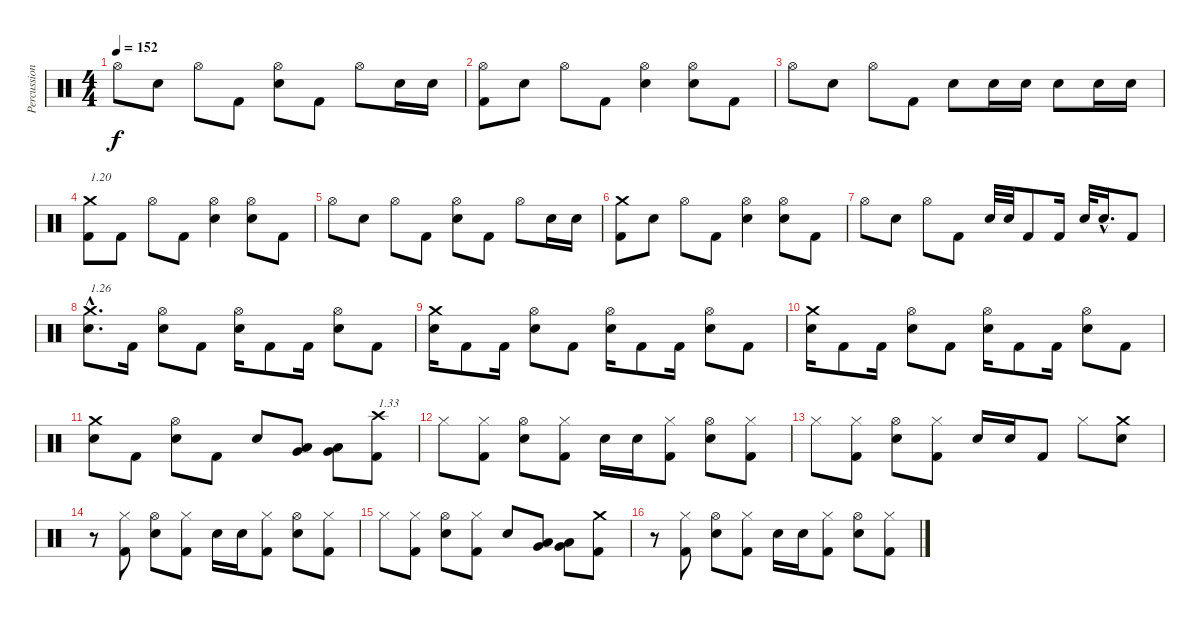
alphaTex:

\track ("Percussions" "Percussion") {instrument percussion}
\staff {score}
\articulation defaults
\ts (4 4)
\tempo 152
\clef neutral
\ks c "Hi-Hat (open)".8{dy f} "Electric Snare (hit)".8 "Hi-Hat (open)".8 "Kick (hit) 2".8
("Electric Snare (hit)" "Hi-Hat (open)").8 "Kick (hit) 2".8 "Hi-Hat (open)".8 "Electric Snare (hit)".16 "Electric Snare (hit)".16 |
("Kick (hit) 2" "Hi-Hat (open)").8 "Electric Snare (hit)".8 "Hi-Hat (open)".8 "Kick (hit) 2".8 ("Electric Snare (hit)" "Hi-Hat (open)").4 ("Electric Snare (hit)" "Hi-Hat (open)").8 "Kick (hit) 2".8 |
"Hi-Hat (open)".8 "Electric Snare (hit)".8 "Hi-Hat (open)".8 "Kick (hit) 2".8 "Electric Snare (hit)".8 "Electric Snare (hit)".16 "Electric Snare (hit)".16 "Electric Snare (hit)".8 "Electric Snare (hit)".16 "Electric Snare (hit)".16 |
("Kick (hit) 2" "Crash medium (hit)").8{txt "1.20"} "Kick (hit) 2".8 "Hi-Hat (open)".8 "Kick (hit) 2".8 ("Electric Snare (hit)" "Hi-Hat (open)").4 ("Electric Snare (hit)" "Hi-Hat (open)").8 "Kick (hit) 2".8 |
"Hi-Hat (open)".8 "Electric Snare (hit)".8 "Hi-Hat (open)".8 "Kick (hit) 2".8 ("Electric Snare (hit)" "Hi-Hat (open)").8 "Kick (hit) 2".8 "Hi-Hat (open)".8 "Electric Snare (hit)".16 "Electric Snare (hit)".16 |
("Kick (hit) 2" "Crash medium (hit)").8 "Electric Snare (hit)".8 "Hi-Hat (open)".8 "Kick (hit) 2".8 ("Electric Snare (hit)" "Hi-Hat (open)").4 ("Electric Snare (hit)" "Hi-Hat (open)").8 "Kick (hit) 2".8 |
"Hi-Hat (open)".8 "Electric Snare (hit)".8 "Hi-Hat (open)".8 "Kick (hit) 2".8 "Electric Snare (hit)".32 "Electric Snare (hit)".32 "Kick (hit) 2".8 "Kick (hit) 2".16 "Electric Snare (hit)".32 "Electric Snare (hit)"{hac}.16{d} "Kick (hit) 2".8 |
("Electric Snare (hit)"{hac} "Crash medium (hit)"{hac}).8{d txt "1.26"} "Kick (hit) 2".16 ("Electric Snare (hit)" "Hi-Hat (open)").8 "Kick (hit) 2".8 ("Electric Snare (hit)" "Hi-Hat (open)").16 "Kick (hit) 2".8 "Kick (hit) 2".16 ("Electric Snare (hit)" "Hi-Hat (open)").8 "Kick (hit) 2".8 |
("Electric Snare (hit)" "Crash medium (hit)").16 "Kick (hit) 2".8 "Kick (hit) 2".16 ("Electric Snare (hit)" "Hi-Hat (open)").8 "Kick (hit) 2".8 ("Electric Snare (hit)" "Hi-Hat (open)").16 "Kick (hit) 2".8 "Kick (hit) 2".16 ("Electric Snare (hit)" "Hi-Hat (open)").8 "Kick (hit) 2".8 |
("Electric Snare (hit)" "Crash medium (hit)").16 "Kick (hit) 2".8 "Kick (hit) 2".16 ("Electric Snare (hit)" "Hi-Hat (open)").8 "Kick (hit) 2".8 ("Electric Snare (hit)" "Hi-Hat (open)").16 "Kick (hit) 2".8 "Kick (hit) 2".16 ("Electric Snare (hit)" "Hi-Hat (open)").8 "Kick (hit) 2".8 |
("Electric Snare (hit)" "Crash medium (hit)").8 "Kick (hit) 2".8 ("Electric Snare (hit)" "Hi-Hat (open)").8 "Kick (hit) 2".8 "Electric Snare (hit)".8 ("Very Low Tom (hit)" "Low Floor Tom (hit)").8 ("Very Low Tom (hit)" "Low Floor Tom (hit)").8 ("Kick (hit) 2" "Crash high (hit)").8{txt "1.33"} |
"Hi-Hat (closed)".8 ("Kick (hit) 2" "Hi-Hat (closed)").8 ("Electric Snare (hit)" "Hi-Hat (open)").8 ("Kick (hit) 2" "Hi-Hat (closed)").8 "Electric Snare (hit)".16 "Electric Snare (hit)".16 ("Kick (hit) 2" "Hi-Hat (closed)").8 ("Electric Snare (hit)" "Hi-Hat (open)").8 ("Kick (hit) 2" "Hi-Hat (closed)").8 |
"Hi-Hat (closed)".8 ("Kick (hit) 2" "Hi-Hat (closed)").8 ("Electric Snare (hit)" "Hi-Hat (open)").8 ("Kick (hit) 2" "Hi-Hat (closed)").8 "Electric Snare (hit)".16 "Electric Snare (hit)".16 "Kick (hit) 2".8 "Hi-Hat (closed)".8 ("Electric Snare (hit)" "Crash medium (hit)").8 |
r.8 ("Kick (hit) 2" "Hi-Hat (closed)").8 ("Electric Snare (hit)" "Hi-Hat (open)").8 ("Kick (hit) 2" "Hi-Hat (closed)").8 "Electric Snare (hit)".16 "Electric Snare (hit)".16 ("Kick (hit) 2" "Hi-Hat (closed)").8 ("Electric Snare (hit)" "Hi-Hat (open)").8 ("Kick (hit) 2" "Hi-Hat (closed)").8 |
"Hi-Hat (closed)".8 ("Kick (hit) 2" "Hi-Hat (closed)").8 ("Electric Snare (hit)" "Hi-Hat (open)").8 ("Kick (hit) 2" "Hi-Hat (closed)").8 "Electric Snare (hit)".8 ("Very Low Tom (hit)" "Low Floor Tom (hit)").8 ("Very Low Tom (hit)" "Low Floor Tom (hit)").8 ("Kick (hit) 2" "Crash medium (hit)").8 |
r.8 ("Kick (hit) 2" "Hi-Hat (closed)").8 ("Electric Snare (hit)" "Hi-Hat (open)").8 ("Kick (hit) 2" "Hi-Hat (closed)").8 "Electric Snare (hit)".16 "Electric Snare (hit)".16 ("Kick (hit) 2" "Hi-Hat (closed)").8 ("Electric Snare (hit)" "Hi-Hat (open)").8 ("Kick (hit) 2" "Hi-Hat (closed)").8
